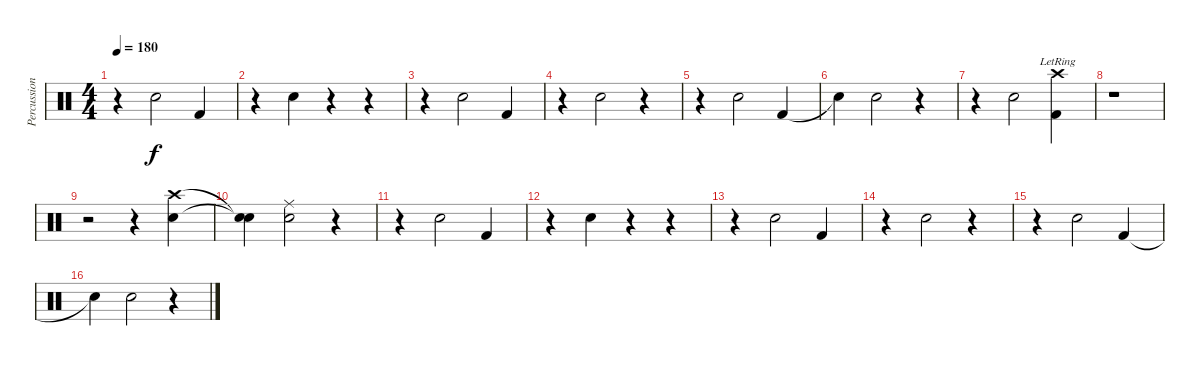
\track ("Percussion" "Percussion") {instrument percussion}
\staff {score}
\articulation defaults
\ts (4 4)
\tempo 180
\clef neutral
\ks c
r.4{dy f} "Electric Snare (hit)".2 "Kick (hit) 2".4 |
r.4 "Electric Snare (hit)".4 r.4 r.4 |
r.4 "Electric Snare (hit)".2 "Kick (hit) 2".4 |
r.4 "Electric Snare (hit)".2 r.4 |
r.4 "Electric Snare (hit)".2 "Kick (hit) 2".4 |
"Snare (hit)"{t}.4 "Electric Snare (hit)".2 r.4 |
r.4 "Electric Snare (hit)".2 ("Kick (hit) 2" "Crash high (hit)"{lr}).4 |
r.1 |
r.2 r.4 ("Crash high (hit)" "Electric Snare (hit)").4 |
("Snare (hit)"{t} "Snare (hit)"{t}).4 ("Electric Snare (hit)" "Ride (middle)").2 r.4 |
r.4 "Electric Snare (hit)".2 "Kick (hit) 2".4 |
r.4 "Electric Snare (hit)".4 r.4 r.4 |
r.4 "Electric Snare (hit)".2 "Kick (hit) 2".4 |
r.4 "Electric Snare (hit)".2 r.4 |
r.4 "Electric Snare (hit)".2 "Kick (hit) 2".4 |
"Snare (hit)"{t}.4 "Electric Snare (hit)".2 r.4
